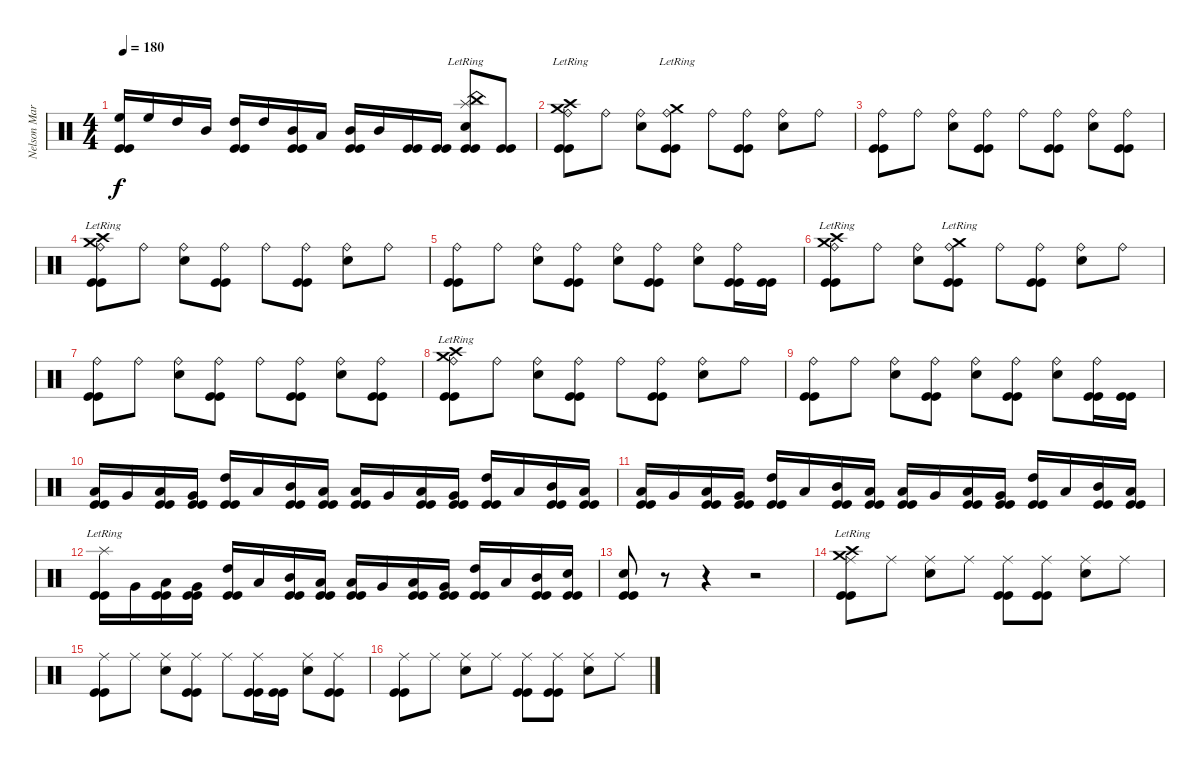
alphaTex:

\track ("Nelson Maria" "Nelson Mar") {instrument percussion}
\staff {score}
\articulation defaults
\ts (4 4)
\tempo 180
\clef neutral
\ks c
("High Floor Tom (hit)" "Kick (hit)" "Kick (hit)").16{dy f} "High Floor Tom (hit)".16 "High Tom (hit)".16 "Mid Tom (hit)".16 ("High Tom (hit)" "Kick (hit)" "Kick (hit)").16 "High Tom (hit)".16 ("Mid Tom (hit)" "Kick (hit)" "Kick (hit)").16 "Low Tom (hit)".16 ("Mid Tom (hit)" "Kick (hit)" "Kick (hit)").16 "Mid Tom (hit)".16 ("Kick (hit)" "Kick (hit)").16 ("Kick (hit)" "Kick (hit)").16 ("China (hit)"{lr} "Splash (hit)"{lr} "Snare (hit) 2" "Kick (hit)" "Kick (hit)").8 ("Kick (hit)" "Kick (hit)").8 |
("Crash high (hit)"{lr} "Crash medium (hit)" "Ride (bell)" "Kick (hit)" "Kick (hit)").8 "Ride (bell)".8 ("Snare (hit) 2" "Ride (bell)").8 ("Crash medium (hit)"{lr} "Ride (bell)" "Kick (hit)" "Kick (hit)").8 "Ride (bell)".8 ("Ride (bell)" "Kick (hit)" "Kick (hit)").8 ("Snare (hit) 2" "Ride (bell)").8 "Ride (bell)".8 |
("Ride (bell)" "Kick (hit)" "Kick (hit)").8 "Ride (bell)".8 ("Snare (hit) 2" "Ride (bell)").8 ("Ride (bell)" "Kick (hit)" "Kick (hit)").8 "Ride (bell)".8 ("Ride (bell)" "Kick (hit)" "Kick (hit)").8 ("Snare (hit) 2" "Ride (bell)").8 ("Ride (bell)" "Kick (hit)" "Kick (hit)").8 |
("Crash high (hit)"{lr} "Crash medium (hit)" "Ride (bell)" "Kick (hit)" "Kick (hit)").8 "Ride (bell)".8 ("Snare (hit) 2" "Ride (bell)").8 ("Ride (bell)" "Kick (hit)" "Kick (hit)").8 "Ride (bell)".8 ("Ride (bell)" "Kick (hit)" "Kick (hit)").8 ("Snare (hit) 2" "Ride (bell)").8 "Ride (bell)".8 |
("Ride (bell)" "Kick (hit)" "Kick (hit)").8 "Ride (bell)".8 ("Snare (hit) 2" "Ride (bell)").8 ("Ride (bell)" "Kick (hit)" "Kick (hit)").8 ("Snare (hit) 2" "Ride (bell)").8 ("Ride (bell)" "Kick (hit)" "Kick (hit)").8 ("Snare (hit) 2" "Ride (bell)").8 ("Ride (bell)" "Kick (hit)" "Kick (hit)").16 ("Kick (hit)" "Kick (hit)").16 |
("Crash high (hit)"{lr} "Crash medium (hit)" "Ride (bell)" "Kick (hit)" "Kick (hit)").8 "Ride (bell)".8 ("Snare (hit) 2" "Ride (bell)").8 ("Crash medium (hit)"{lr} "Ride (bell)" "Kick (hit)" "Kick (hit)").8 "Ride (bell)".8 ("Ride (bell)" "Kick (hit)" "Kick (hit)").8 ("Snare (hit) 2" "Ride (bell)").8 "Ride (bell)".8 |
("Ride (bell)" "Kick (hit)" "Kick (hit)").8 "Ride (bell)".8 ("Snare (hit) 2" "Ride (bell)").8 ("Ride (bell)" "Kick (hit)" "Kick (hit)").8 "Ride (bell)".8 ("Ride (bell)" "Kick (hit)" "Kick (hit)").8 ("Snare (hit) 2" "Ride (bell)").8 ("Ride (bell)" "Kick (hit)" "Kick (hit)").8 |
("Crash high (hit)"{lr} "Crash medium (hit)" "Ride (bell)" "Kick (hit)" "Kick (hit)").8 "Ride (bell)".8 ("Snare (hit) 2" "Ride (bell)").8 ("Ride (bell)" "Kick (hit)" "Kick (hit)").8 "Ride (bell)".8 ("Ride (bell)" "Kick (hit)" "Kick (hit)").8 ("Snare (hit) 2" "Ride (bell)").8 "Ride (bell)".8 |
("Ride (bell)" "Kick (hit)" "Kick (hit)").8 "Ride (bell)".8 ("Snare (hit) 2" "Ride (bell)").8 ("Ride (bell)" "Kick (hit)" "Kick (hit)").8 ("Snare (hit) 2" "Ride (bell)").8 ("Ride (bell)" "Kick (hit)" "Kick (hit)").8 ("Snare (hit) 2" "Ride (bell)").8 ("Ride (bell)" "Kick (hit)" "Kick (hit)").16 ("Kick (hit)" "Kick (hit)").16 |
("Low Tom (hit)" "Kick (hit)" "Kick (hit)").16 "Very Low Tom (hit)".16 ("Low Tom (hit)" "Kick (hit)" "Kick (hit)").16 ("Very Low Tom (hit)" "Kick (hit)" "Kick (hit)").16 ("High Tom (hit)" "Kick (hit)" "Kick (hit)").16 "Low Tom (hit)".16 ("Mid Tom (hit)" "Kick (hit)" "Kick (hit)").16 ("Low Tom (hit)" "Kick (hit)" "Kick (hit)").16 ("Low Tom (hit)" "Kick (hit)" "Kick (hit)").16 "Very Low Tom (hit)".16 ("Low Tom (hit)" "Kick (hit)" "Kick (hit)").16 ("Very Low Tom (hit)" "Kick (hit)" "Kick (hit)").16 ("High Tom (hit)" "Kick (hit)" "Kick (hit)").16 "Low Tom (hit)".16 ("Mid Tom (hit)" "Kick (hit)" "Kick (hit)").16 ("Low Tom (hit)" "Kick (hit)" "Kick (hit)").16 |
("Low Tom (hit)" "Kick (hit)" "Kick (hit)").16 "Very Low Tom (hit)".16 ("Low Tom (hit)" "Kick (hit)" "Kick (hit)").16 ("Very Low Tom (hit)" "Kick (hit)" "Kick (hit)").16 ("High Tom (hit)" "Kick (hit)" "Kick (hit)").16 "Low Tom (hit)".16 ("Mid Tom (hit)" "Kick (hit)" "Kick (hit)").16 ("Low Tom (hit)" "Kick (hit)" "Kick (hit)").16 ("Low Tom (hit)" "Kick (hit)" "Kick (hit)").16 "Very Low Tom (hit)".16 ("Low Tom (hit)" "Kick (hit)" "Kick (hit)").16 ("Very Low Tom (hit)" "Kick (hit)" "Kick (hit)").16 ("High Tom (hit)" "Kick (hit)" "Kick (hit)").16 "Low Tom (hit)".16 ("Mid Tom (hit)" "Kick (hit)" "Kick (hit)").16 ("Low Tom (hit)" "Kick (hit)" "Kick (hit)").16 |
("Splash (hit)"{lr} "Kick (hit)" "Kick (hit)").16 "Very Low Tom (hit)".16 ("Low Tom (hit)" "Kick (hit)" "Kick (hit)").16 ("Very Low Tom (hit)" "Kick (hit)" "Kick (hit)").16 ("High Tom (hit)" "Kick (hit)" "Kick (hit)").16 "Low Tom (hit)".16 ("Mid Tom (hit)" "Kick (hit)" "Kick (hit)").16 ("Low Tom (hit)" "Kick (hit)" "Kick (hit)").16 ("Low Tom (hit)" "Kick (hit)" "Kick (hit)").16 "Very Low Tom (hit)".16 ("Low Tom (hit)" "Kick (hit)" "Kick (hit)").16 ("Very Low Tom (hit)" "Kick (hit)" "Kick (hit)").16 ("High Tom (hit)" "Kick (hit)" "Kick (hit)").16 "Low Tom (hit)".16 ("Mid Tom (hit)" "Kick (hit)" "Kick (hit)").16 ("Snare (hit) 2" "Kick (hit)" "Kick (hit)").16 |
("Snare (hit) 2" "Kick (hit)" "Kick (hit)").8 r.8{volume 0} r.4 r.2 |
("Crash high (hit)"{lr} "Crash medium (hit)" "Ride (middle)" "Kick (hit)" "Kick (hit)").8{volume 16} "Ride (middle)".8 ("Snare (hit) 2" "Ride (middle)").8 "Ride (middle)".8 ("Ride (middle)" "Kick (hit)" "Kick (hit)").8 ("Ride (middle)" "Kick (hit)" "Kick (hit)").8 ("Snare (hit) 2" "Ride (middle)").8 "Ride (middle)".8 |
("Ride (middle)" "Kick (hit)" "Kick (hit)").8 "Ride (middle)".8 ("Snare (hit) 2" "Ride (middle)").8 ("Ride (middle)" "Kick (hit)" "Kick (hit)").8 "Ride (middle)".8 ("Ride (middle)" "Kick (hit)" "Kick (hit)").16 ("Kick (hit)" "Kick (hit)").16 ("Snare (hit) 2" "Ride (middle)").8 ("Ride (middle)" "Kick (hit)" "Kick (hit)").8 |
("Ride (middle)" "Kick (hit)" "Kick (hit)").8 "Ride (middle)".8 ("Snare (hit) 2" "Ride (middle)").8 "Ride (middle)".8 ("Ride (middle)" "Kick (hit)" "Kick (hit)").8 ("Ride (middle)" "Kick (hit)" "Kick (hit)").8 ("Snare (hit) 2" "Ride (middle)").8 "Ride (middle)".8
